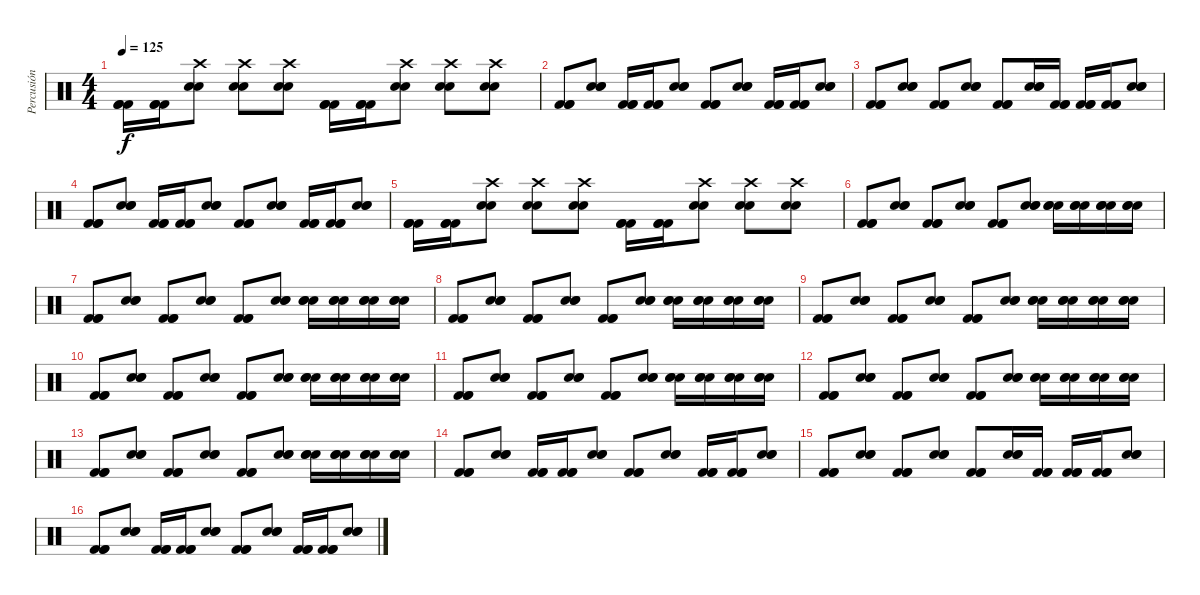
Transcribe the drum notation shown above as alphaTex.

\track ("Percusión" "Percusión") {instrument percussion}
\staff {score}
\articulation defaults
\ts (4 4)
\tempo 125
\clef neutral
\ks c
("Kick (hit) 2" "Kick (hit) 2" "Kick (hit) 2").16{dy f} ("Kick (hit) 2" "Kick (hit) 2" "Kick (hit) 2").16 ("Crash high (hit)" "Electric Snare (hit)" "Electric Snare (hit)").8 ("Crash high (hit)" "Electric Snare (hit)" "Electric Snare (hit)").8 ("Crash high (hit)" "Electric Snare (hit)" "Electric Snare (hit)").8 ("Kick (hit) 2" "Kick (hit) 2" "Kick (hit) 2").16 ("Kick (hit) 2" "Kick (hit) 2" "Kick (hit) 2").16 ("Crash high (hit)" "Electric Snare (hit)" "Electric Snare (hit)").8 ("Crash high (hit)" "Electric Snare (hit)" "Electric Snare (hit)").8 ("Crash high (hit)" "Electric Snare (hit)" "Electric Snare (hit)").8 |
("Kick (hit) 2" "Kick (hit) 2" "Kick (hit) 2").8 ("Electric Snare (hit)" "Electric Snare (hit)" "Electric Snare (hit)").8 ("Kick (hit) 2" "Kick (hit) 2" "Kick (hit) 2").16 ("Kick (hit) 2" "Kick (hit) 2" "Kick (hit) 2").16 ("Electric Snare (hit)" "Electric Snare (hit)" "Electric Snare (hit)").8 ("Kick (hit) 2" "Kick (hit) 2" "Kick (hit) 2").8 ("Electric Snare (hit)" "Electric Snare (hit)" "Electric Snare (hit)").8 ("Kick (hit) 2" "Kick (hit) 2" "Kick (hit) 2").16 ("Kick (hit) 2" "Kick (hit) 2" "Kick (hit) 2").16 ("Electric Snare (hit)" "Electric Snare (hit)" "Electric Snare (hit)").8 |
("Kick (hit) 2" "Kick (hit) 2" "Kick (hit) 2").8 ("Electric Snare (hit)" "Electric Snare (hit)" "Electric Snare (hit)").8 ("Kick (hit) 2" "Kick (hit) 2" "Kick (hit) 2").8 ("Electric Snare (hit)" "Electric Snare (hit)" "Electric Snare (hit)").8 ("Kick (hit) 2" "Kick (hit) 2" "Kick (hit) 2").8 ("Electric Snare (hit)" "Electric Snare (hit)" "Electric Snare (hit)").16 ("Kick (hit) 2" "Kick (hit) 2" "Kick (hit) 2").16 ("Kick (hit) 2" "Kick (hit) 2" "Kick (hit) 2").16 ("Kick (hit) 2" "Kick (hit) 2" "Kick (hit) 2").16 ("Electric Snare (hit)" "Electric Snare (hit)" "Electric Snare (hit)").8 |
("Kick (hit) 2" "Kick (hit) 2" "Kick (hit) 2").8 ("Electric Snare (hit)" "Electric Snare (hit)" "Electric Snare (hit)").8 ("Kick (hit) 2" "Kick (hit) 2" "Kick (hit) 2").16 ("Kick (hit) 2" "Kick (hit) 2" "Kick (hit) 2").16 ("Electric Snare (hit)" "Electric Snare (hit)" "Electric Snare (hit)").8 ("Kick (hit) 2" "Kick (hit) 2" "Kick (hit) 2").8 ("Electric Snare (hit)" "Electric Snare (hit)" "Electric Snare (hit)").8 ("Kick (hit) 2" "Kick (hit) 2" "Kick (hit) 2").16 ("Kick (hit) 2" "Kick (hit) 2" "Kick (hit) 2").16 ("Electric Snare (hit)" "Electric Snare (hit)" "Electric Snare (hit)").8 |
("Kick (hit) 2" "Kick (hit) 2" "Kick (hit) 2").16 ("Kick (hit) 2" "Kick (hit) 2" "Kick (hit) 2").16 ("Crash high (hit)" "Electric Snare (hit)" "Electric Snare (hit)").8 ("Crash high (hit)" "Electric Snare (hit)" "Electric Snare (hit)").8 ("Crash high (hit)" "Electric Snare (hit)" "Electric Snare (hit)").8 ("Kick (hit) 2" "Kick (hit) 2" "Kick (hit) 2").16 ("Kick (hit) 2" "Kick (hit) 2" "Kick (hit) 2").16 ("Crash high (hit)" "Electric Snare (hit)" "Electric Snare (hit)").8 ("Crash high (hit)" "Electric Snare (hit)" "Electric Snare (hit)").8 ("Crash high (hit)" "Electric Snare (hit)" "Electric Snare (hit)").8 |
("Kick (hit) 2" "Kick (hit) 2" "Kick (hit) 2").8 ("Electric Snare (hit)" "Electric Snare (hit)" "Electric Snare (hit)").8 ("Kick (hit) 2" "Kick (hit) 2" "Kick (hit) 2").8 ("Electric Snare (hit)" "Electric Snare (hit)" "Electric Snare (hit)").8 ("Kick (hit) 2" "Kick (hit) 2" "Kick (hit) 2").8 ("Electric Snare (hit)" "Electric Snare (hit)" "Electric Snare (hit)").8 ("Electric Snare (hit)" "Electric Snare (hit)" "Electric Snare (hit)").16 ("Electric Snare (hit)" "Electric Snare (hit)" "Electric Snare (hit)").16 ("Electric Snare (hit)" "Electric Snare (hit)" "Electric Snare (hit)").16 ("Electric Snare (hit)" "Electric Snare (hit)" "Electric Snare (hit)").16 |
("Kick (hit) 2" "Kick (hit) 2" "Kick (hit) 2").8 ("Electric Snare (hit)" "Electric Snare (hit)" "Electric Snare (hit)").8 ("Kick (hit) 2" "Kick (hit) 2" "Kick (hit) 2").8 ("Electric Snare (hit)" "Electric Snare (hit)" "Electric Snare (hit)").8 ("Kick (hit) 2" "Kick (hit) 2" "Kick (hit) 2").8 ("Electric Snare (hit)" "Electric Snare (hit)" "Electric Snare (hit)").8 ("Electric Snare (hit)" "Electric Snare (hit)" "Electric Snare (hit)").16 ("Electric Snare (hit)" "Electric Snare (hit)" "Electric Snare (hit)").16 ("Electric Snare (hit)" "Electric Snare (hit)" "Electric Snare (hit)").16 ("Electric Snare (hit)" "Electric Snare (hit)" "Electric Snare (hit)").16 |
("Kick (hit) 2" "Kick (hit) 2" "Kick (hit) 2").8 ("Electric Snare (hit)" "Electric Snare (hit)" "Electric Snare (hit)").8 ("Kick (hit) 2" "Kick (hit) 2" "Kick (hit) 2").8 ("Electric Snare (hit)" "Electric Snare (hit)" "Electric Snare (hit)").8 ("Kick (hit) 2" "Kick (hit) 2" "Kick (hit) 2").8 ("Electric Snare (hit)" "Electric Snare (hit)" "Electric Snare (hit)").8 ("Electric Snare (hit)" "Electric Snare (hit)" "Electric Snare (hit)").16 ("Electric Snare (hit)" "Electric Snare (hit)" "Electric Snare (hit)").16 ("Electric Snare (hit)" "Electric Snare (hit)" "Electric Snare (hit)").16 ("Electric Snare (hit)" "Electric Snare (hit)" "Electric Snare (hit)").16 |
("Kick (hit) 2" "Kick (hit) 2" "Kick (hit) 2").8 ("Electric Snare (hit)" "Electric Snare (hit)" "Electric Snare (hit)").8 ("Kick (hit) 2" "Kick (hit) 2" "Kick (hit) 2").8 ("Electric Snare (hit)" "Electric Snare (hit)" "Electric Snare (hit)").8 ("Kick (hit) 2" "Kick (hit) 2" "Kick (hit) 2").8 ("Electric Snare (hit)" "Electric Snare (hit)" "Electric Snare (hit)").8 ("Electric Snare (hit)" "Electric Snare (hit)" "Electric Snare (hit)").16 ("Electric Snare (hit)" "Electric Snare (hit)" "Electric Snare (hit)").16 ("Electric Snare (hit)" "Electric Snare (hit)" "Electric Snare (hit)").16 ("Electric Snare (hit)" "Electric Snare (hit)" "Electric Snare (hit)").16 |
("Kick (hit) 2" "Kick (hit) 2" "Kick (hit) 2").8 ("Electric Snare (hit)" "Electric Snare (hit)" "Electric Snare (hit)").8 ("Kick (hit) 2" "Kick (hit) 2" "Kick (hit) 2").8 ("Electric Snare (hit)" "Electric Snare (hit)" "Electric Snare (hit)").8 ("Kick (hit) 2" "Kick (hit) 2" "Kick (hit) 2").8 ("Electric Snare (hit)" "Electric Snare (hit)" "Electric Snare (hit)").8 ("Electric Snare (hit)" "Electric Snare (hit)" "Electric Snare (hit)").16 ("Electric Snare (hit)" "Electric Snare (hit)" "Electric Snare (hit)").16 ("Electric Snare (hit)" "Electric Snare (hit)" "Electric Snare (hit)").16 ("Electric Snare (hit)" "Electric Snare (hit)" "Electric Snare (hit)").16 |
("Kick (hit) 2" "Kick (hit) 2" "Kick (hit) 2").8 ("Electric Snare (hit)" "Electric Snare (hit)" "Electric Snare (hit)").8 ("Kick (hit) 2" "Kick (hit) 2" "Kick (hit) 2").8 ("Electric Snare (hit)" "Electric Snare (hit)" "Electric Snare (hit)").8 ("Kick (hit) 2" "Kick (hit) 2" "Kick (hit) 2").8 ("Electric Snare (hit)" "Electric Snare (hit)" "Electric Snare (hit)").8 ("Electric Snare (hit)" "Electric Snare (hit)" "Electric Snare (hit)").16 ("Electric Snare (hit)" "Electric Snare (hit)" "Electric Snare (hit)").16 ("Electric Snare (hit)" "Electric Snare (hit)" "Electric Snare (hit)").16 ("Electric Snare (hit)" "Electric Snare (hit)" "Electric Snare (hit)").16 |
("Kick (hit) 2" "Kick (hit) 2" "Kick (hit) 2").8 ("Electric Snare (hit)" "Electric Snare (hit)" "Electric Snare (hit)").8 ("Kick (hit) 2" "Kick (hit) 2" "Kick (hit) 2").8 ("Electric Snare (hit)" "Electric Snare (hit)" "Electric Snare (hit)").8 ("Kick (hit) 2" "Kick (hit) 2" "Kick (hit) 2").8 ("Electric Snare (hit)" "Electric Snare (hit)" "Electric Snare (hit)").8 ("Electric Snare (hit)" "Electric Snare (hit)" "Electric Snare (hit)").16 ("Electric Snare (hit)" "Electric Snare (hit)" "Electric Snare (hit)").16 ("Electric Snare (hit)" "Electric Snare (hit)" "Electric Snare (hit)").16 ("Electric Snare (hit)" "Electric Snare (hit)" "Electric Snare (hit)").16 |
("Kick (hit) 2" "Kick (hit) 2" "Kick (hit) 2").8 ("Electric Snare (hit)" "Electric Snare (hit)" "Electric Snare (hit)").8 ("Kick (hit) 2" "Kick (hit) 2" "Kick (hit) 2").8 ("Electric Snare (hit)" "Electric Snare (hit)" "Electric Snare (hit)").8 ("Kick (hit) 2" "Kick (hit) 2" "Kick (hit) 2").8 ("Electric Snare (hit)" "Electric Snare (hit)" "Electric Snare (hit)").8 ("Electric Snare (hit)" "Electric Snare (hit)" "Electric Snare (hit)").16 ("Electric Snare (hit)" "Electric Snare (hit)" "Electric Snare (hit)").16 ("Electric Snare (hit)" "Electric Snare (hit)" "Electric Snare (hit)").16 ("Electric Snare (hit)" "Electric Snare (hit)" "Electric Snare (hit)").16 |
("Kick (hit) 2" "Kick (hit) 2" "Kick (hit) 2").8 ("Electric Snare (hit)" "Electric Snare (hit)" "Electric Snare (hit)").8 ("Kick (hit) 2" "Kick (hit) 2" "Kick (hit) 2").16 ("Kick (hit) 2" "Kick (hit) 2" "Kick (hit) 2").16 ("Electric Snare (hit)" "Electric Snare (hit)" "Electric Snare (hit)").8 ("Kick (hit) 2" "Kick (hit) 2" "Kick (hit) 2").8 ("Electric Snare (hit)" "Electric Snare (hit)" "Electric Snare (hit)").8 ("Kick (hit) 2" "Kick (hit) 2" "Kick (hit) 2").16 ("Kick (hit) 2" "Kick (hit) 2" "Kick (hit) 2").16 ("Electric Snare (hit)" "Electric Snare (hit)" "Electric Snare (hit)").8 |
("Kick (hit) 2" "Kick (hit) 2" "Kick (hit) 2").8 ("Electric Snare (hit)" "Electric Snare (hit)" "Electric Snare (hit)").8 ("Kick (hit) 2" "Kick (hit) 2" "Kick (hit) 2").8 ("Electric Snare (hit)" "Electric Snare (hit)" "Electric Snare (hit)").8 ("Kick (hit) 2" "Kick (hit) 2" "Kick (hit) 2").8 ("Electric Snare (hit)" "Electric Snare (hit)" "Electric Snare (hit)").16 ("Kick (hit) 2" "Kick (hit) 2" "Kick (hit) 2").16 ("Kick (hit) 2" "Kick (hit) 2" "Kick (hit) 2").16 ("Kick (hit) 2" "Kick (hit) 2" "Kick (hit) 2").16 ("Electric Snare (hit)" "Electric Snare (hit)" "Electric Snare (hit)").8 |
("Kick (hit) 2" "Kick (hit) 2" "Kick (hit) 2").8 ("Electric Snare (hit)" "Electric Snare (hit)" "Electric Snare (hit)").8 ("Kick (hit) 2" "Kick (hit) 2" "Kick (hit) 2").16 ("Kick (hit) 2" "Kick (hit) 2" "Kick (hit) 2").16 ("Electric Snare (hit)" "Electric Snare (hit)" "Electric Snare (hit)").8 ("Kick (hit) 2" "Kick (hit) 2" "Kick (hit) 2").8 ("Electric Snare (hit)" "Electric Snare (hit)" "Electric Snare (hit)").8 ("Kick (hit) 2" "Kick (hit) 2" "Kick (hit) 2").16 ("Kick (hit) 2" "Kick (hit) 2" "Kick (hit) 2").16 ("Electric Snare (hit)" "Electric Snare (hit)" "Electric Snare (hit)").8
